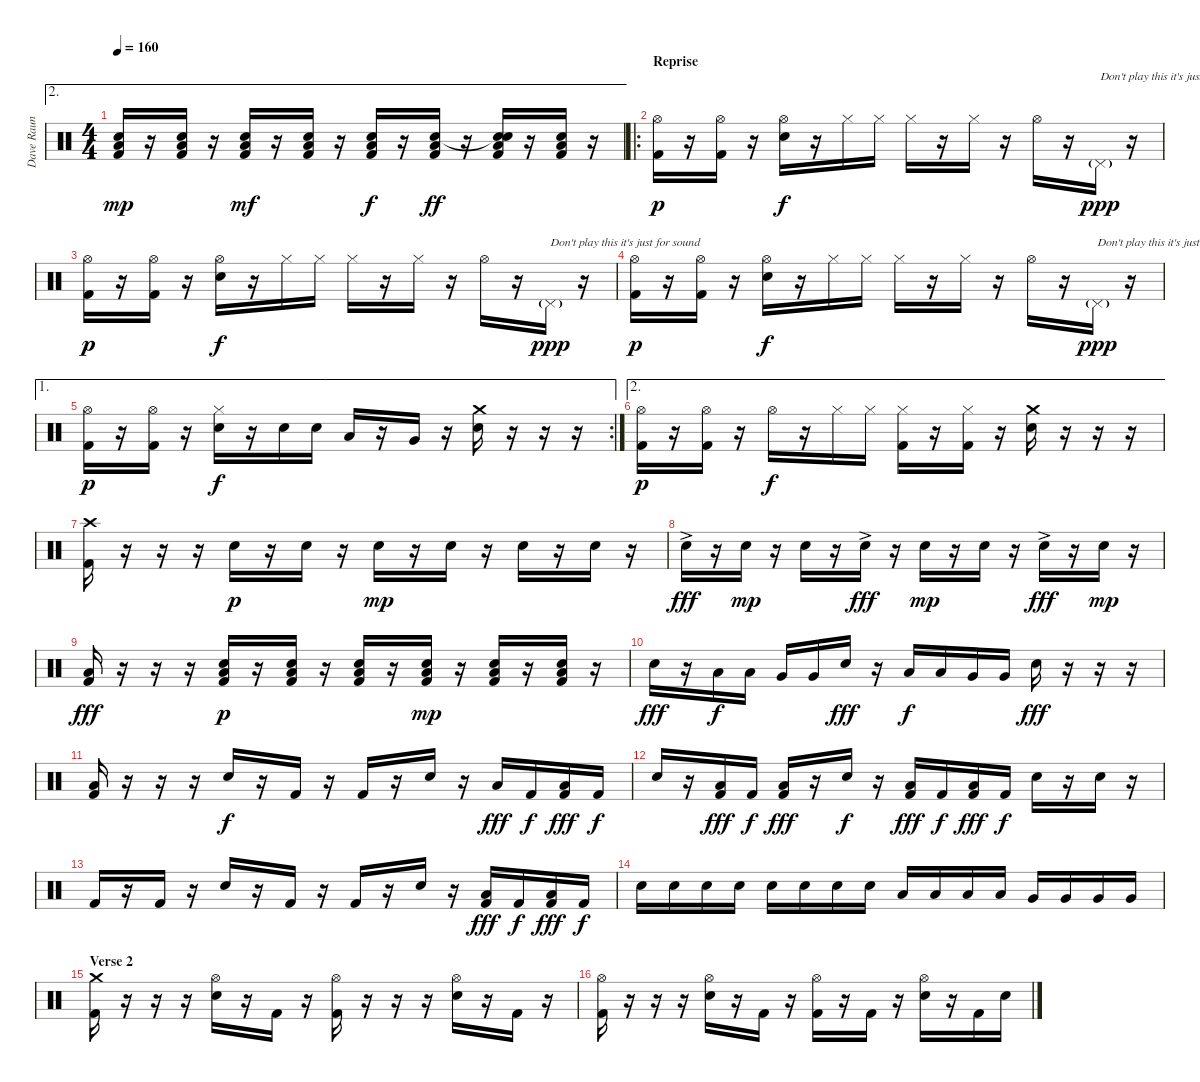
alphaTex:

\track ("Dave Raun" "Dave Raun") {instrument percussion}
\staff {score}
\articulation defaults
\ae 2
\ts (4 4)
\tempo 160
\clef neutral
\ks c
("Low Floor Tom (hit)" "Snare (hit) 2" "Kick (hit) 2").16{dy mp} r.16 ("Low Floor Tom (hit)" "Snare (hit) 2" "Kick (hit) 2").16 r.16 ("Low Floor Tom (hit)" "Snare (hit) 2" "Kick (hit) 2").16{dy mf} r.16 ("Low Floor Tom (hit)" "Snare (hit) 2" "Kick (hit) 2").16 r.16 ("Low Floor Tom (hit)" "Snare (hit) 2" "Kick (hit) 2").16{dy f} r.16 ("Low Floor Tom (hit)" "Snare (hit) 2" "Kick (hit) 2").16{dy ff} r.16 ("Low Floor Tom (hit)" "Snare (hit)"{t} "Snare (hit) 2" "Kick (hit) 2").16 r.16 ("Low Floor Tom (hit)" "Snare (hit) 2" "Kick (hit) 2").16 r.16 |
\ro
\section ("" "Reprise")
("Hi-Hat (open)" "Kick (hit) 2").16{dy p} r.16 ("Hi-Hat (open)" "Kick (hit) 2").16 r.16 ("Hi-Hat (open)" "Snare (hit) 2").16{dy f} r.16 "Hi-Hat (closed)".16 "Hi-Hat (closed)".16 "Hi-Hat (closed)".16 r.16 "Hi-Hat (closed)".16 r.16 "Hi-Hat (open)".16 r.16 "Pedal Hi-Hat (hit)"{g}.16{txt "Don't play this it's just for sound" dy ppp} r.16 |
("Hi-Hat (open)" "Kick (hit) 2").16{dy p} r.16 ("Hi-Hat (open)" "Kick (hit) 2").16 r.16 ("Hi-Hat (open)" "Snare (hit) 2").16{dy f} r.16 "Hi-Hat (closed)".16 "Hi-Hat (closed)".16 "Hi-Hat (closed)".16 r.16 "Hi-Hat (closed)".16 r.16 "Hi-Hat (open)".16 r.16 "Pedal Hi-Hat (hit)"{g}.16{txt "Don't play this it's just for sound" dy ppp} r.16 |
("Hi-Hat (open)" "Kick (hit) 2").16{dy p} r.16 ("Hi-Hat (open)" "Kick (hit) 2").16 r.16 ("Hi-Hat (open)" "Snare (hit) 2").16{dy f} r.16 "Hi-Hat (closed)".16 "Hi-Hat (closed)".16 "Hi-Hat (closed)".16 r.16 "Hi-Hat (closed)".16 r.16 "Hi-Hat (open)".16 r.16 "Pedal Hi-Hat (hit)"{g}.16{txt "Don't play this it's just for sound" dy ppp} r.16 |
\ae 1
\rc 2
("Hi-Hat (open)" "Kick (hit) 2").16{dy p} r.16 ("Hi-Hat (open)" "Kick (hit) 2").16 r.16 ("Hi-Hat (closed)" "Snare (hit) 2").16{dy f} r.16 "Snare (hit) 2".16 "Snare (hit) 2".16 "Low Tom (hit)".16 r.16 "Very Low Tom (hit)".16 r.16 ("Crash medium (hit)" "Snare (hit) 2").16 r.16 r.16 r.16 |
\ae 2
("Hi-Hat (open)" "Kick (hit) 2").16{dy p} r.16 ("Hi-Hat (open)" "Kick (hit) 2").16 r.16 "Hi-Hat (open)".16{dy f} r.16 "Hi-Hat (closed)".16 "Hi-Hat (closed)".16 ("Hi-Hat (closed)" "Kick (hit) 2").16 r.16 ("Hi-Hat (closed)" "Kick (hit) 2").16 r.16 ("Crash medium (hit)" "Snare (hit) 2").16 r.16 r.16 r.16 |
("Crash high (hit)" "Kick (hit) 2").16 r.16 r.16 r.16 "Snare (hit) 2".16{dy p} r.16 "Snare (hit) 2".16 r.16 "Snare (hit) 2".16{dy mp} r.16 "Snare (hit) 2".16 r.16 "Snare (hit) 2".16 r.16 "Snare (hit) 2".16 r.16 |
"Snare (hit) 2"{ac}.16{dy fff} r.16 "Snare (hit) 2".16{dy mp} r.16 "Snare (hit) 2".16 r.16 "Snare (hit) 2"{ac}.16{dy fff} r.16 "Snare (hit) 2".16{dy mp} r.16 "Snare (hit) 2".16 r.16 "Snare (hit) 2"{ac}.16{dy fff} r.16 "Snare (hit) 2".16{dy mp} r.16 |
("Low Tom (hit)" "Kick (hit) 2").16{dy fff} r.16 r.16 r.16 ("Low Floor Tom (hit)" "Snare (hit) 2" "Kick (hit) 2").16{dy p} r.16 ("Low Floor Tom (hit)" "Snare (hit) 2" "Kick (hit) 2").16 r.16 ("Low Floor Tom (hit)" "Snare (hit) 2" "Kick (hit) 2").16 r.16 ("Low Floor Tom (hit)" "Snare (hit) 2" "Kick (hit) 2").16{dy mp} r.16 ("Low Floor Tom (hit)" "Snare (hit) 2" "Kick (hit) 2").16 r.16 ("Low Floor Tom (hit)" "Snare (hit) 2" "Kick (hit) 2").16 r.16 |
"Snare (hit) 2".16{dy fff} r.16 "Low Tom (hit)".16{dy f} "Low Tom (hit)".16 "Very Low Tom (hit)".16 "Very Low Tom (hit)".16 "Snare (hit) 2".16{dy fff} r.16 "Low Tom (hit)".16{dy f} "Low Tom (hit)".16 "Very Low Tom (hit)".16 "Very Low Tom (hit)".16 "Snare (hit) 2".16{dy fff} r.16 r.16 r.16 |
("Low Tom (hit)" "Kick (hit) 2").16 r.16 r.16 r.16 "Snare (hit) 2".16{dy f} r.16 "Kick (hit) 2".16 r.16 "Kick (hit) 2".16 r.16 "Snare (hit) 2".16 r.16 "Low Tom (hit)".16{dy fff} "Kick (hit) 2".16{dy f} ("Low Tom (hit)" "Kick (hit) 2").16{dy fff} "Kick (hit) 2".16{dy f} |
"Snare (hit) 2".16 r.16 ("Low Tom (hit)" "Kick (hit) 2").16{dy fff} "Kick (hit) 2".16{dy f} ("Low Tom (hit)" "Kick (hit) 2").16{dy fff} r.16 "Snare (hit) 2".16{dy f} r.16 ("Low Tom (hit)" "Kick (hit) 2").16{dy fff} "Kick (hit) 2".16{dy f} ("Low Tom (hit)" "Kick (hit) 2").16{dy fff} "Kick (hit) 2".16{dy f} "Snare (hit) 2".16 r.16 "Snare (hit) 2".16 r.16 |
"Kick (hit) 2".16 r.16 "Kick (hit) 2".16 r.16 "Snare (hit) 2".16 r.16 "Kick (hit) 2".16 r.16 "Kick (hit) 2".16 r.16 "Snare (hit) 2".16 r.16 ("Low Tom (hit)" "Kick (hit) 2").16{dy fff} "Kick (hit) 2".16{dy f} ("Low Tom (hit)" "Kick (hit) 2").16{dy fff} "Kick (hit) 2".16{dy f} |
"Snare (hit) 2".16 "Snare (hit) 2".16 "Snare (hit) 2".16 "Snare (hit) 2".16 "Snare (hit) 2".16 "Snare (hit) 2".16 "Snare (hit) 2".16 "Snare (hit) 2".16 "Low Tom (hit)".16 "Low Tom (hit)".16 "Low Tom (hit)".16 "Low Tom (hit)".16 "Very Low Tom (hit)".16 "Very Low Tom (hit)".16 "Very Low Tom (hit)".16 "Very Low Tom (hit)".16 |
\section ("" "Verse 2")
("Crash medium (hit)" "Kick (hit) 2").16 r.16 r.16 r.16 ("Hi-Hat (open)" "Snare (hit) 2").16 r.16 "Kick (hit) 2".16 r.16 ("Hi-Hat (open)" "Kick (hit) 2").16 r.16 r.16 r.16 ("Hi-Hat (open)" "Snare (hit) 2").16 r.16 "Kick (hit) 2".16 r.16 |
("Hi-Hat (open)" "Kick (hit) 2").16 r.16 r.16 r.16 ("Hi-Hat (open)" "Snare (hit) 2").16 r.16 "Kick (hit) 2".16 r.16 ("Hi-Hat (open)" "Kick (hit) 2").16 r.16 "Kick (hit) 2".16 r.16 ("Hi-Hat (open)" "Snare (hit) 2").16 r.16 "Kick (hit) 2".16 "Snare (hit) 2".16
